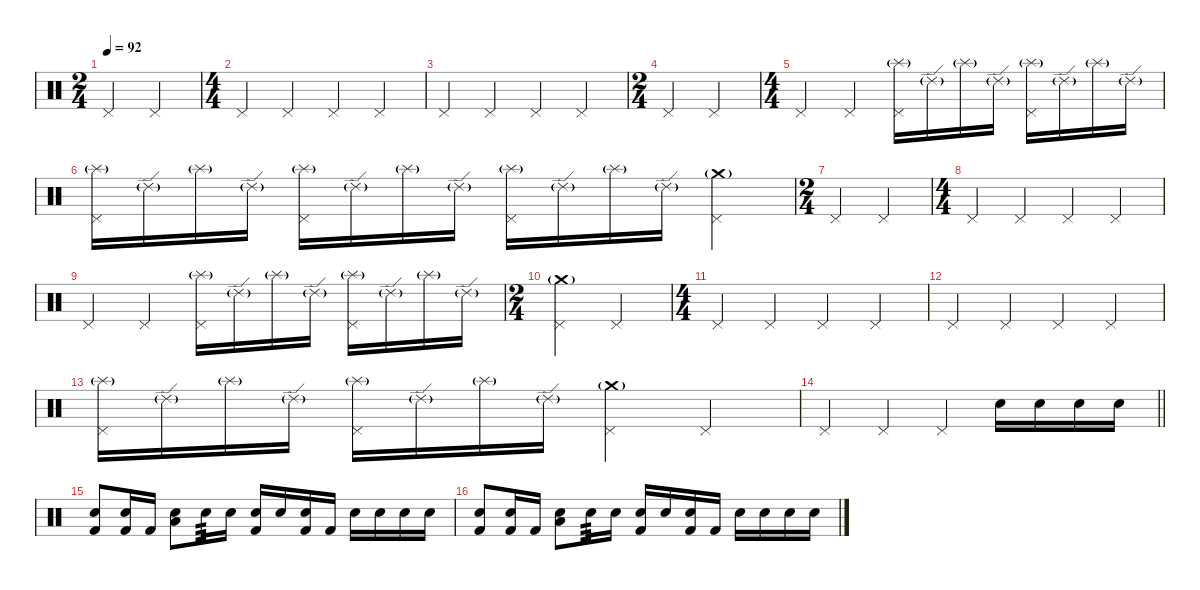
\defaultSystemsLayout 4
\hideDynamics
\bracketExtendMode nobrackets
\singleTrackTrackNamePolicy hidden
\multiTrackTrackNamePolicy hidden
\otherSystemsTrackNameOrientation horizontal
\track ("Lars" "drm.") {instrument percussion}
\staff {score}
\articulation defaults
\ts (2 4)
\beaming (8 2 2)
\tempo 92
\clef neutral
\ks c "Pedal Hi-Hat (hit)".4{dy f beam Up} "Pedal Hi-Hat (hit)".4{beam Up}
|
\ts (4 4)
\beaming (8 2 2 2 2)
"Pedal Hi-Hat (hit)".4{beam Up} "Pedal Hi-Hat (hit)".4{beam Up} "Pedal Hi-Hat (hit)".4{beam Up} "Pedal Hi-Hat (hit)".4{beam Up} |
"Pedal Hi-Hat (hit)".4{beam Up} "Pedal Hi-Hat (hit)".4{beam Up} "Pedal Hi-Hat (hit)".4{beam Up} "Pedal Hi-Hat (hit)".4{beam Up} |
\ts (2 4)
\beaming (8 2 2 2 2)
"Pedal Hi-Hat (hit)".4{beam Up} "Pedal Hi-Hat (hit)".4{beam Up} |
\ts (4 4)
\beaming (8 2 2 2 2)
"Pedal Hi-Hat (hit)".4{beam Up} "Pedal Hi-Hat (hit)".4{beam Up} ("Pedal Hi-Hat (hit)" "Splash (hit)"{g}).16{beam Down} "Ride (edge) 2"{g}.16{dy pp beam Down} "Splash (hit)"{g}.16{beam Down} "Ride (edge) 2"{g}.16{beam Down} ("Pedal Hi-Hat (hit)" "Splash (hit)"{g}).16{dy f beam Down} "Ride (edge) 2"{g}.16{dy pp beam Down} "Splash (hit)"{g}.16{dy p beam Down} "Ride (edge) 2"{g}.16{beam Down} |
("Pedal Hi-Hat (hit)" "Splash (hit)"{g}).16{dy f beam Down} "Ride (edge) 2"{g}.16{dy p beam Down} "Splash (hit)"{g}.16{beam Down} "Ride (edge) 2"{g}.16{beam Down} ("Pedal Hi-Hat (hit)" "Splash (hit)"{g}).16{dy f beam Down} "Ride (edge) 2"{g}.16{dy mp beam Down} "Splash (hit)"{g}.16{beam Down} "Ride (edge) 2"{g}.16{beam Down} ("Pedal Hi-Hat (hit)" "Splash (hit)"{g}).16{dy f beam Down} "Ride (edge) 2"{g}.16{dy mf beam Down} "Splash (hit)"{g}.16{beam Down} "Ride (edge) 2"{g}.16{beam Down} ("Pedal Hi-Hat (hit)" "Crash medium (hit)"{g}).4{dy f beam Down} |
\ts (2 4)
\beaming (8 2 2 2 2)
"Pedal Hi-Hat (hit)".4{beam Up} "Pedal Hi-Hat (hit)".4{beam Up} |
\ts (4 4)
\beaming (8 2 2 2 2)
"Pedal Hi-Hat (hit)".4{beam Up} "Pedal Hi-Hat (hit)".4{beam Up} "Pedal Hi-Hat (hit)".4{beam Up} "Pedal Hi-Hat (hit)".4{beam Up} |
"Pedal Hi-Hat (hit)".4{beam Up} "Pedal Hi-Hat (hit)".4{beam Up} ("Pedal Hi-Hat (hit)" "Splash (hit)"{g}).16{beam Down} "Ride (edge) 2"{g}.16{dy pp beam Down} "Splash (hit)"{g}.16{dy p beam Down} "Ride (edge) 2"{g}.16{beam Down} ("Pedal Hi-Hat (hit)" "Splash (hit)"{g}).16{dy f beam Down} "Ride (edge) 2"{g}.16{dy mp beam Down} "Splash (hit)"{g}.16{dy mf beam Down} "Ride (edge) 2"{g}.16{beam Down} |
\ts (2 4)
\beaming (8 2 2 2 2)
("Pedal Hi-Hat (hit)" "Crash medium (hit)"{g}).4{dy f beam Down} "Pedal Hi-Hat (hit)".4{beam Up} |
\ts (4 4)
\beaming (8 2 2 2 2)
"Pedal Hi-Hat (hit)".4{beam Up} "Pedal Hi-Hat (hit)".4{beam Up} "Pedal Hi-Hat (hit)".4{beam Up} "Pedal Hi-Hat (hit)".4{beam Up} |
"Pedal Hi-Hat (hit)".4{beam Up} "Pedal Hi-Hat (hit)".4{beam Up} "Pedal Hi-Hat (hit)".4{beam Up} "Pedal Hi-Hat (hit)".4{beam Up} |
("Pedal Hi-Hat (hit)" "Splash (hit)"{g}).16{beam Down} "Ride (edge) 2"{g}.16{dy pp beam Down} "Splash (hit)"{g}.16{dy p beam Down} "Ride (edge) 2"{g}.16{beam Down} ("Pedal Hi-Hat (hit)" "Splash (hit)"{g}).16{dy f beam Down} "Ride (edge) 2"{g}.16{dy mp beam Down} "Splash (hit)"{g}.16{dy mf beam Down} "Ride (edge) 2"{g}.16{beam Down} ("Pedal Hi-Hat (hit)" "Crash medium (hit)"{g}).4{dy f beam Down} "Pedal Hi-Hat (hit)".4{beam Up} |
\barLineRight lightlight "Pedal Hi-Hat (hit)".4{beam Up} "Pedal Hi-Hat (hit)".4{beam Up} "Pedal Hi-Hat (hit)".4{beam Up} "Snare (hit) 2".16{beam Down} "Snare (hit) 2".16{beam Down} "Snare (hit) 2".16{beam Down} "Snare (hit) 2".16{beam Down}
|
\section ("" "")
("Snare (hit) 2" "Kick (hit) 2").8{beam Up} ("Snare (hit) 2" "Kick (hit) 2").16{beam Up} "Kick (hit) 2".16{beam Up} ("Snare (hit) 2" "Low Tom (hit)").8{beam Down} "Snare (hit) 2".16{tp 3 beam Down} "Snare (hit) 2".16{beam Down} ("Snare (hit) 2" "Kick (hit) 2").16{beam Up} "Snare (hit) 2".16{beam Up} ("Snare (hit) 2" "Kick (hit) 2").16{beam Up} "Kick (hit) 2".16{beam Up} "Snare (hit) 2".16{beam Down} "Snare (hit) 2".16{beam Down} "Snare (hit) 2".16{beam Down} "Snare (hit) 2".16{beam Down} |
("Snare (hit) 2" "Kick (hit) 2").8{beam Up} ("Snare (hit) 2" "Kick (hit) 2").16{beam Up} "Kick (hit) 2".16{beam Up} ("Snare (hit) 2" "Low Tom (hit)").8{beam Down} "Snare (hit) 2".16{tp 3 beam Down} "Snare (hit) 2".16{beam Down} ("Snare (hit) 2" "Kick (hit) 2").16{beam Up} "Snare (hit) 2".16{beam Up} ("Snare (hit) 2" "Kick (hit) 2").16{beam Up} "Kick (hit) 2".16{beam Up} "Snare (hit) 2".16{beam Down} "Snare (hit) 2".16{beam Down} "Snare (hit) 2".16{beam Down} "Snare (hit) 2".16{beam Down}
